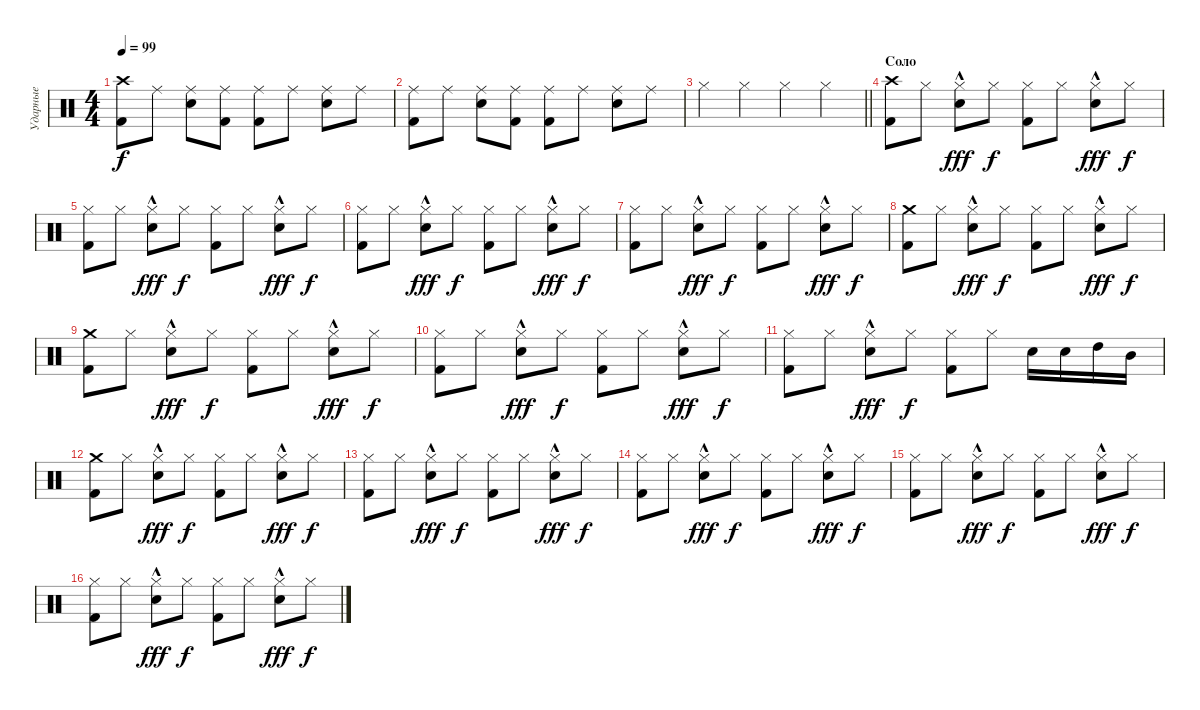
\track ("Ударные" "Ударные") {instrument percussion}
\staff
\articulation defaults
\ts (4 4)
\tempo 99
\clef neutral
\ks c
("Crash high (hit)" "Kick (hit) 2").8{dy f} "Ride (middle)".8 ("Ride (middle)" "Electric Snare (hit)").8 ("Ride (middle)" "Kick (hit) 2").8 ("Ride (middle)" "Kick (hit) 2").8 "Ride (middle)".8 ("Ride (middle)" "Electric Snare (hit)").8 "Ride (middle)".8 |
("Ride (middle)" "Kick (hit) 2").8 "Ride (middle)".8 ("Ride (middle)" "Electric Snare (hit)").8 ("Ride (middle)" "Kick (hit) 2").8 ("Ride (middle)" "Kick (hit) 2").8 "Ride (middle)".8 ("Ride (middle)" "Electric Snare (hit)").8 "Ride (middle)".8 |
\barLineRight lightlight "Hi-Hat (closed)".4 "Hi-Hat (closed)".4 "Hi-Hat (closed)".4 "Hi-Hat (closed)".4
|
\section ("" "Соло")
("Crash high (hit)" "Kick (hit) 2").8 "Hi-Hat (closed)".8 ("Hi-Hat (closed)"{hac} "Electric Snare (hit)").8{dy fff} "Hi-Hat (closed)".8{dy f} ("Hi-Hat (closed)" "Kick (hit) 2").8 "Hi-Hat (closed)".8 ("Hi-Hat (closed)"{hac} "Electric Snare (hit)").8{dy fff} "Hi-Hat (closed)".8{dy f} |
("Hi-Hat (closed)" "Kick (hit) 2").8 "Hi-Hat (closed)".8 ("Hi-Hat (closed)"{hac} "Electric Snare (hit)").8{dy fff} "Hi-Hat (closed)".8{dy f} ("Hi-Hat (closed)" "Kick (hit) 2").8 "Hi-Hat (closed)".8 ("Hi-Hat (closed)"{hac} "Electric Snare (hit)").8{dy fff} "Hi-Hat (closed)".8{dy f} |
("Hi-Hat (closed)" "Kick (hit) 2").8 "Hi-Hat (closed)".8 ("Hi-Hat (closed)"{hac} "Electric Snare (hit)").8{dy fff} "Hi-Hat (closed)".8{dy f} ("Hi-Hat (closed)" "Kick (hit) 2").8 "Hi-Hat (closed)".8 ("Hi-Hat (closed)"{hac} "Electric Snare (hit)").8{dy fff} "Hi-Hat (closed)".8{dy f} |
("Hi-Hat (closed)" "Kick (hit) 2").8 "Hi-Hat (closed)".8 ("Hi-Hat (closed)"{hac} "Electric Snare (hit)").8{dy fff} "Hi-Hat (closed)".8{dy f} ("Hi-Hat (closed)" "Kick (hit) 2").8 "Hi-Hat (closed)".8 ("Hi-Hat (closed)"{hac} "Electric Snare (hit)").8{dy fff} "Hi-Hat (closed)".8{dy f} |
("Crash medium (hit)" "Kick (hit) 2").8 "Hi-Hat (closed)".8 ("Hi-Hat (closed)"{hac} "Electric Snare (hit)").8{dy fff} "Hi-Hat (closed)".8{dy f} ("Hi-Hat (closed)" "Kick (hit) 2").8 "Hi-Hat (closed)".8 ("Hi-Hat (closed)"{hac} "Electric Snare (hit)").8{dy fff} "Hi-Hat (closed)".8{dy f} |
("Crash medium (hit)" "Kick (hit) 2").8 "Hi-Hat (closed)".8 ("Hi-Hat (closed)"{hac} "Electric Snare (hit)").8{dy fff} "Hi-Hat (closed)".8{dy f} ("Hi-Hat (closed)" "Kick (hit) 2").8 "Hi-Hat (closed)".8 ("Hi-Hat (closed)"{hac} "Electric Snare (hit)").8{dy fff} "Hi-Hat (closed)".8{dy f} |
("Hi-Hat (closed)" "Kick (hit) 2").8 "Hi-Hat (closed)".8 ("Hi-Hat (closed)"{hac} "Electric Snare (hit)").8{dy fff} "Hi-Hat (closed)".8{dy f} ("Hi-Hat (closed)" "Kick (hit) 2").8 "Hi-Hat (closed)".8 ("Hi-Hat (closed)"{hac} "Electric Snare (hit)").8{dy fff} "Hi-Hat (closed)".8{dy f} |
("Hi-Hat (closed)" "Kick (hit) 2").8 "Hi-Hat (closed)".8 ("Hi-Hat (closed)"{hac} "Electric Snare (hit)").8{dy fff} "Hi-Hat (closed)".8{dy f} ("Hi-Hat (closed)" "Kick (hit) 2").8 "Hi-Hat (closed)".8 "Electric Snare (hit)".16 "Electric Snare (hit)".16 "High Tom (hit)".16 "Mid Tom (hit)".16 |
("Crash medium (hit)" "Kick (hit) 2").8 "Hi-Hat (closed)".8 ("Hi-Hat (closed)"{hac} "Electric Snare (hit)").8{dy fff} "Hi-Hat (closed)".8{dy f} ("Hi-Hat (closed)" "Kick (hit) 2").8 "Hi-Hat (closed)".8 ("Hi-Hat (closed)"{hac} "Electric Snare (hit)").8{dy fff} "Hi-Hat (closed)".8{dy f} |
("Hi-Hat (closed)" "Kick (hit) 2").8 "Hi-Hat (closed)".8 ("Hi-Hat (closed)"{hac} "Electric Snare (hit)").8{dy fff} "Hi-Hat (closed)".8{dy f} ("Hi-Hat (closed)" "Kick (hit) 2").8 "Hi-Hat (closed)".8 ("Hi-Hat (closed)"{hac} "Electric Snare (hit)").8{dy fff} "Hi-Hat (closed)".8{dy f} |
("Hi-Hat (closed)" "Kick (hit) 2").8 "Hi-Hat (closed)".8 ("Hi-Hat (closed)"{hac} "Electric Snare (hit)").8{dy fff} "Hi-Hat (closed)".8{dy f} ("Hi-Hat (closed)" "Kick (hit) 2").8 "Hi-Hat (closed)".8 ("Hi-Hat (closed)"{hac} "Electric Snare (hit)").8{dy fff} "Hi-Hat (closed)".8{dy f} |
("Hi-Hat (closed)" "Kick (hit) 2").8 "Hi-Hat (closed)".8 ("Hi-Hat (closed)"{hac} "Electric Snare (hit)").8{dy fff} "Hi-Hat (closed)".8{dy f} ("Hi-Hat (closed)" "Kick (hit) 2").8 "Hi-Hat (closed)".8 ("Hi-Hat (closed)"{hac} "Electric Snare (hit)").8{dy fff} "Hi-Hat (closed)".8{dy f} |
("Hi-Hat (closed)" "Kick (hit) 2").8 "Hi-Hat (closed)".8 ("Hi-Hat (closed)"{hac} "Electric Snare (hit)").8{dy fff} "Hi-Hat (closed)".8{dy f} ("Hi-Hat (closed)" "Kick (hit) 2").8 "Hi-Hat (closed)".8 ("Hi-Hat (closed)"{hac} "Electric Snare (hit)").8{dy fff} "Hi-Hat (closed)".8{dy f}
